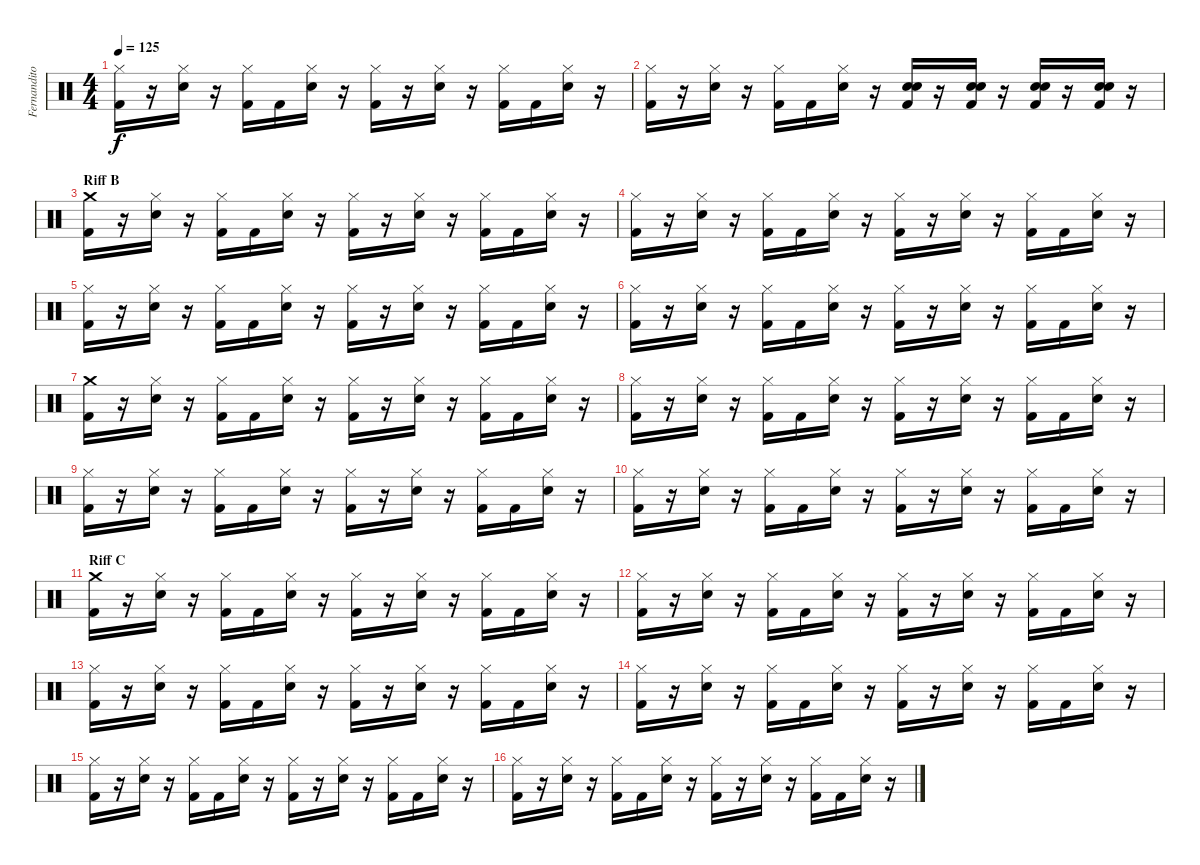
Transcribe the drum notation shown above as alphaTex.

\track ("Fernandito" "Fernandito") {instrument percussion}
\staff {score}
\articulation defaults
\ts (4 4)
\tempo 125
\clef neutral
\ks c
("Hi-Hat (closed)" "Kick (hit) 2").16{dy f} r.16 ("Hi-Hat (closed)" "Snare (hit) 2").16 r.16 ("Hi-Hat (closed)" "Kick (hit) 2").16 "Kick (hit) 2".16 ("Hi-Hat (closed)" "Snare (hit) 2").16 r.16 ("Hi-Hat (closed)" "Kick (hit) 2").16 r.16 ("Hi-Hat (closed)" "Snare (hit) 2").16 r.16 ("Hi-Hat (closed)" "Kick (hit) 2").16 "Kick (hit) 2".16 ("Hi-Hat (closed)" "Snare (hit) 2").16 r.16 |
("Hi-Hat (closed)" "Kick (hit) 2").16 r.16 ("Hi-Hat (closed)" "Snare (hit) 2").16 r.16 ("Hi-Hat (closed)" "Kick (hit) 2").16 "Kick (hit) 2".16 ("Hi-Hat (closed)" "Snare (hit) 2").16 r.16 ("Snare (hit) 2" "Snare (hit) 2" "Kick (hit) 2").16 r.16 ("Snare (hit) 2" "Snare (hit) 2" "Kick (hit) 2").16 r.16 ("Snare (hit) 2" "Snare (hit) 2" "Kick (hit) 2").16 r.16 ("Snare (hit) 2" "Snare (hit) 2" "Kick (hit) 2").16 r.16 |
\section ("" "Riff B")
("Crash medium (hit)" "Kick (hit) 2").16 r.16 ("Hi-Hat (closed)" "Snare (hit) 2").16 r.16 ("Hi-Hat (closed)" "Kick (hit) 2").16 "Kick (hit) 2".16 ("Hi-Hat (closed)" "Snare (hit) 2").16 r.16 ("Hi-Hat (closed)" "Kick (hit) 2").16 r.16 ("Hi-Hat (closed)" "Snare (hit) 2").16 r.16 ("Hi-Hat (closed)" "Kick (hit) 2").16 "Kick (hit) 2".16 ("Hi-Hat (closed)" "Snare (hit) 2").16 r.16 |
("Hi-Hat (closed)" "Kick (hit) 2").16 r.16 ("Hi-Hat (closed)" "Snare (hit) 2").16 r.16 ("Hi-Hat (closed)" "Kick (hit) 2").16 "Kick (hit) 2".16 ("Hi-Hat (closed)" "Snare (hit) 2").16 r.16 ("Hi-Hat (closed)" "Kick (hit) 2").16 r.16 ("Hi-Hat (closed)" "Snare (hit) 2").16 r.16 ("Hi-Hat (closed)" "Kick (hit) 2").16 "Kick (hit) 2".16 ("Hi-Hat (closed)" "Snare (hit) 2").16 r.16 |
("Hi-Hat (closed)" "Kick (hit) 2").16 r.16 ("Hi-Hat (closed)" "Snare (hit) 2").16 r.16 ("Hi-Hat (closed)" "Kick (hit) 2").16 "Kick (hit) 2".16 ("Hi-Hat (closed)" "Snare (hit) 2").16 r.16 ("Hi-Hat (closed)" "Kick (hit) 2").16 r.16 ("Hi-Hat (closed)" "Snare (hit) 2").16 r.16 ("Hi-Hat (closed)" "Kick (hit) 2").16 "Kick (hit) 2".16 ("Hi-Hat (closed)" "Snare (hit) 2").16 r.16 |
("Hi-Hat (closed)" "Kick (hit) 2").16 r.16 ("Hi-Hat (closed)" "Snare (hit) 2").16 r.16 ("Hi-Hat (closed)" "Kick (hit) 2").16 "Kick (hit) 2".16 ("Hi-Hat (closed)" "Snare (hit) 2").16 r.16 ("Hi-Hat (closed)" "Kick (hit) 2").16 r.16 ("Hi-Hat (closed)" "Snare (hit) 2").16 r.16 ("Hi-Hat (closed)" "Kick (hit) 2").16 "Kick (hit) 2".16 ("Hi-Hat (closed)" "Snare (hit) 2").16 r.16 |
("Crash medium (hit)" "Kick (hit) 2").16 r.16 ("Hi-Hat (closed)" "Snare (hit) 2").16 r.16 ("Hi-Hat (closed)" "Kick (hit) 2").16 "Kick (hit) 2".16 ("Hi-Hat (closed)" "Snare (hit) 2").16 r.16 ("Hi-Hat (closed)" "Kick (hit) 2").16 r.16 ("Hi-Hat (closed)" "Snare (hit) 2").16 r.16 ("Hi-Hat (closed)" "Kick (hit) 2").16 "Kick (hit) 2".16 ("Hi-Hat (closed)" "Snare (hit) 2").16 r.16 |
("Hi-Hat (closed)" "Kick (hit) 2").16 r.16 ("Hi-Hat (closed)" "Snare (hit) 2").16 r.16 ("Hi-Hat (closed)" "Kick (hit) 2").16 "Kick (hit) 2".16 ("Hi-Hat (closed)" "Snare (hit) 2").16 r.16 ("Hi-Hat (closed)" "Kick (hit) 2").16 r.16 ("Hi-Hat (closed)" "Snare (hit) 2").16 r.16 ("Hi-Hat (closed)" "Kick (hit) 2").16 "Kick (hit) 2".16 ("Hi-Hat (closed)" "Snare (hit) 2").16 r.16 |
("Hi-Hat (closed)" "Kick (hit) 2").16 r.16 ("Hi-Hat (closed)" "Snare (hit) 2").16 r.16 ("Hi-Hat (closed)" "Kick (hit) 2").16 "Kick (hit) 2".16 ("Hi-Hat (closed)" "Snare (hit) 2").16 r.16 ("Hi-Hat (closed)" "Kick (hit) 2").16 r.16 ("Hi-Hat (closed)" "Snare (hit) 2").16 r.16 ("Hi-Hat (closed)" "Kick (hit) 2").16 "Kick (hit) 2".16 ("Hi-Hat (closed)" "Snare (hit) 2").16 r.16 |
("Hi-Hat (closed)" "Kick (hit) 2").16 r.16 ("Hi-Hat (closed)" "Snare (hit) 2").16 r.16 ("Hi-Hat (closed)" "Kick (hit) 2").16 "Kick (hit) 2".16 ("Hi-Hat (closed)" "Snare (hit) 2").16 r.16 ("Hi-Hat (closed)" "Kick (hit) 2").16 r.16 ("Hi-Hat (closed)" "Snare (hit) 2").16 r.16 ("Hi-Hat (closed)" "Kick (hit) 2").16 "Kick (hit) 2".16 ("Hi-Hat (closed)" "Snare (hit) 2").16 r.16 |
\section ("" "Riff C")
("Crash medium (hit)" "Kick (hit) 2").16 r.16 ("Hi-Hat (closed)" "Snare (hit) 2").16 r.16 ("Hi-Hat (closed)" "Kick (hit) 2").16 "Kick (hit) 2".16 ("Hi-Hat (closed)" "Snare (hit) 2").16 r.16 ("Hi-Hat (closed)" "Kick (hit) 2").16 r.16 ("Hi-Hat (closed)" "Snare (hit) 2").16 r.16 ("Hi-Hat (closed)" "Kick (hit) 2").16 "Kick (hit) 2".16 ("Hi-Hat (closed)" "Snare (hit) 2").16 r.16 |
("Hi-Hat (closed)" "Kick (hit) 2").16 r.16 ("Hi-Hat (closed)" "Snare (hit) 2").16 r.16 ("Hi-Hat (closed)" "Kick (hit) 2").16 "Kick (hit) 2".16 ("Hi-Hat (closed)" "Snare (hit) 2").16 r.16 ("Hi-Hat (closed)" "Kick (hit) 2").16 r.16 ("Hi-Hat (closed)" "Snare (hit) 2").16 r.16 ("Hi-Hat (closed)" "Kick (hit) 2").16 "Kick (hit) 2".16 ("Hi-Hat (closed)" "Snare (hit) 2").16 r.16 |
("Hi-Hat (closed)" "Kick (hit) 2").16 r.16 ("Hi-Hat (closed)" "Snare (hit) 2").16 r.16 ("Hi-Hat (closed)" "Kick (hit) 2").16 "Kick (hit) 2".16 ("Hi-Hat (closed)" "Snare (hit) 2").16 r.16 ("Hi-Hat (closed)" "Kick (hit) 2").16 r.16 ("Hi-Hat (closed)" "Snare (hit) 2").16 r.16 ("Hi-Hat (closed)" "Kick (hit) 2").16 "Kick (hit) 2".16 ("Hi-Hat (closed)" "Snare (hit) 2").16 r.16 |
("Hi-Hat (closed)" "Kick (hit) 2").16 r.16 ("Hi-Hat (closed)" "Snare (hit) 2").16 r.16 ("Hi-Hat (closed)" "Kick (hit) 2").16 "Kick (hit) 2".16 ("Hi-Hat (closed)" "Snare (hit) 2").16 r.16 ("Hi-Hat (closed)" "Kick (hit) 2").16 r.16 ("Hi-Hat (closed)" "Snare (hit) 2").16 r.16 ("Hi-Hat (closed)" "Kick (hit) 2").16 "Kick (hit) 2".16 ("Hi-Hat (closed)" "Snare (hit) 2").16 r.16 |
("Hi-Hat (closed)" "Kick (hit) 2").16 r.16 ("Hi-Hat (closed)" "Snare (hit) 2").16 r.16 ("Hi-Hat (closed)" "Kick (hit) 2").16 "Kick (hit) 2".16 ("Hi-Hat (closed)" "Snare (hit) 2").16 r.16 ("Hi-Hat (closed)" "Kick (hit) 2").16 r.16 ("Hi-Hat (closed)" "Snare (hit) 2").16 r.16 ("Hi-Hat (closed)" "Kick (hit) 2").16 "Kick (hit) 2".16 ("Hi-Hat (closed)" "Snare (hit) 2").16 r.16 |
("Hi-Hat (closed)" "Kick (hit) 2").16 r.16 ("Hi-Hat (closed)" "Snare (hit) 2").16 r.16 ("Hi-Hat (closed)" "Kick (hit) 2").16 "Kick (hit) 2".16 ("Hi-Hat (closed)" "Snare (hit) 2").16 r.16 ("Hi-Hat (closed)" "Kick (hit) 2").16 r.16 ("Hi-Hat (closed)" "Snare (hit) 2").16 r.16 ("Hi-Hat (closed)" "Kick (hit) 2").16 "Kick (hit) 2".16 ("Hi-Hat (closed)" "Snare (hit) 2").16 r.16
